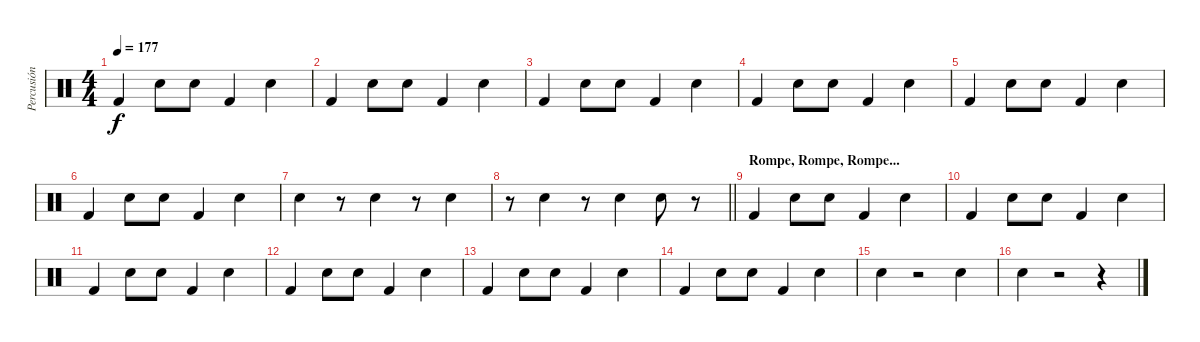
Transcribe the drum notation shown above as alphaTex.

\track ("Percusión" "Percusión") {instrument percussion}
\staff {score}
\articulation defaults
\ts (4 4)
\tempo 177
\clef neutral
\ks c "Kick (hit) 2".4{dy f balance 8} "Electric Snare (hit)".8 "Electric Snare (hit)".8 "Kick (hit) 2".4 "Electric Snare (hit)".4
|
"Kick (hit) 2".4 "Electric Snare (hit)".8 "Electric Snare (hit)".8 "Kick (hit) 2".4 "Electric Snare (hit)".4 |
"Kick (hit) 2".4 "Electric Snare (hit)".8 "Electric Snare (hit)".8 "Kick (hit) 2".4 "Electric Snare (hit)".4 |
"Kick (hit) 2".4 "Electric Snare (hit)".8 "Electric Snare (hit)".8 "Kick (hit) 2".4 "Electric Snare (hit)".4 |
"Kick (hit) 2".4 "Electric Snare (hit)".8 "Electric Snare (hit)".8 "Kick (hit) 2".4 "Electric Snare (hit)".4 |
"Kick (hit) 2".4 "Electric Snare (hit)".8 "Electric Snare (hit)".8 "Kick (hit) 2".4 "Electric Snare (hit)".4 |
"Snare (hit) 2".4 r.8 "Snare (hit) 2".4 r.8 "Snare (hit) 2".4 |
\barLineRight lightlight
r.8 "Snare (hit) 2".4 r.8 "Snare (hit) 2".4 "Snare (hit) 2".8 r.8 |
\section ("" "Rompe, Rompe, Rompe...")
"Kick (hit) 2".4{balance 8} "Electric Snare (hit)".8 "Electric Snare (hit)".8 "Kick (hit) 2".4 "Electric Snare (hit)".4 |
"Kick (hit) 2".4 "Electric Snare (hit)".8 "Electric Snare (hit)".8 "Kick (hit) 2".4 "Electric Snare (hit)".4 |
"Kick (hit) 2".4 "Electric Snare (hit)".8 "Electric Snare (hit)".8 "Kick (hit) 2".4 "Electric Snare (hit)".4 |
"Kick (hit) 2".4 "Electric Snare (hit)".8 "Electric Snare (hit)".8 "Kick (hit) 2".4 "Electric Snare (hit)".4 |
"Kick (hit) 2".4 "Electric Snare (hit)".8 "Electric Snare (hit)".8 "Kick (hit) 2".4 "Electric Snare (hit)".4 |
"Kick (hit) 2".4 "Electric Snare (hit)".8 "Electric Snare (hit)".8 "Kick (hit) 2".4 "Electric Snare (hit)".4 |
"Snare (hit) 2".4 r.2 "Snare (hit) 2".4 |
"Snare (hit) 2".4 r.2 r.4
